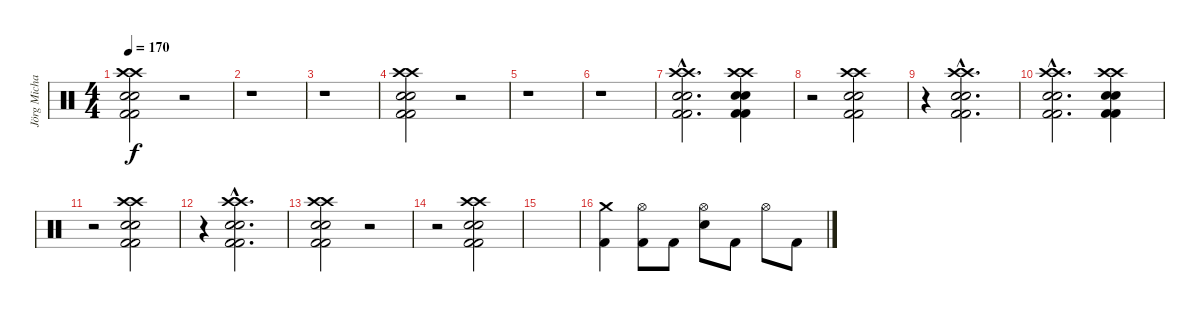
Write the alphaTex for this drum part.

\track ("Jörg Michael (Drums)" "Jörg Micha") {instrument percussion}
\staff {score}
\articulation defaults
\ts (4 4)
\tempo 170
\clef neutral
\ks c
("Crash high (hit)" "Crash high (hit)" "Snare (hit) 2" "Snare (hit) 2" "Kick (hit) 2" "Kick (hit) 2").2{dy f} r.2 |
r.1 |
r.1 |
("Crash high (hit)" "Crash high (hit)" "Snare (hit) 2" "Snare (hit) 2" "Kick (hit) 2" "Kick (hit) 2").2 r.2 |
r.1 |
r.1 |
("Crash high (hit)"{hac} "Crash high (hit)"{hac} "Snare (hit) 2"{hac} "Snare (hit) 2"{hac} "Kick (hit) 2"{hac} "Kick (hit) 2"{hac}).2{d} ("Crash high (hit)" "Crash high (hit)" "Snare (hit) 2" "Snare (hit) 2" "Kick (hit) 2" "Kick (hit) 2").4 |
r.2 ("Crash high (hit)" "Crash high (hit)" "Snare (hit) 2" "Snare (hit) 2" "Kick (hit) 2" "Kick (hit) 2").2 |
r.4 ("Crash high (hit)"{hac} "Crash high (hit)"{hac} "Snare (hit) 2"{hac} "Snare (hit) 2"{hac} "Kick (hit) 2"{hac} "Kick (hit) 2"{hac}).2{d} |
("Crash high (hit)"{hac} "Crash high (hit)"{hac} "Snare (hit) 2"{hac} "Snare (hit) 2"{hac} "Kick (hit) 2"{hac} "Kick (hit) 2"{hac}).2{d} ("Crash high (hit)" "Crash high (hit)" "Snare (hit) 2" "Snare (hit) 2" "Kick (hit) 2" "Kick (hit) 2").4 |
r.2 ("Crash high (hit)" "Crash high (hit)" "Snare (hit) 2" "Snare (hit) 2" "Kick (hit) 2" "Kick (hit) 2").2 |
r.4 ("Crash high (hit)"{hac} "Crash high (hit)"{hac} "Snare (hit) 2"{hac} "Snare (hit) 2"{hac} "Kick (hit) 2"{hac} "Kick (hit) 2"{hac}).2{d} |
("Crash high (hit)" "Crash high (hit)" "Snare (hit) 2" "Snare (hit) 2" "Kick (hit) 2" "Kick (hit) 2").2 r.2 |
r.2 ("Crash high (hit)" "Crash high (hit)" "Snare (hit) 2" "Snare (hit) 2" "Kick (hit) 2" "Kick (hit) 2").2 |
|
("Kick (hit) 2" "Crash medium (hit)").4 ("Kick (hit) 2" "Hi-Hat (open)").8 "Kick (hit) 2".8 ("Snare (hit) 2" "Hi-Hat (open)").8 "Kick (hit) 2".8 "Hi-Hat (open)".8 "Kick (hit) 2".8
